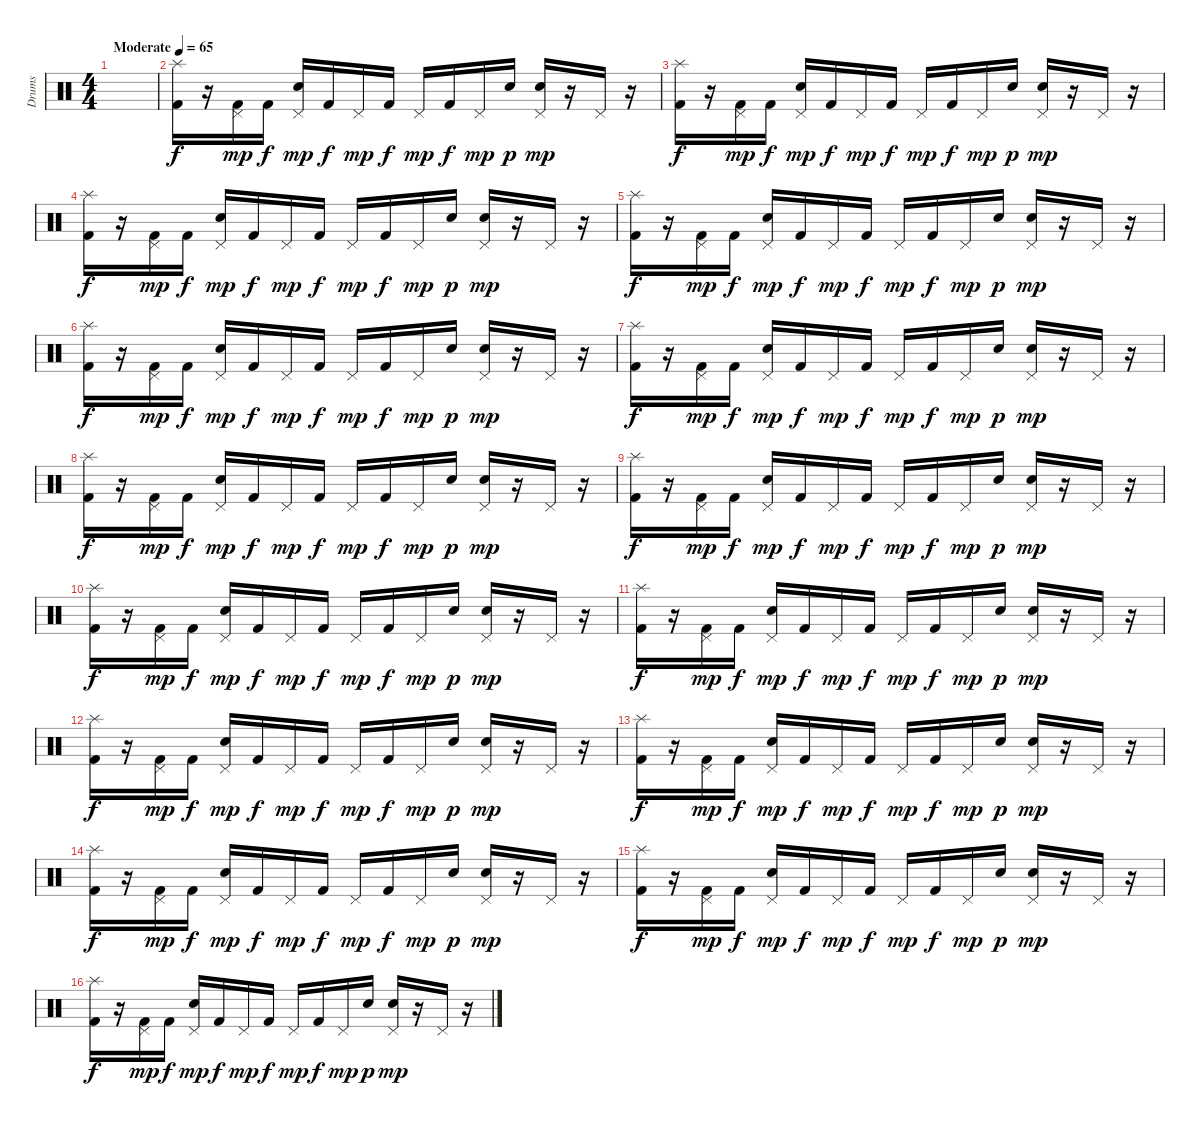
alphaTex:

\track ("Drums" "Drums") {instrument percussion}
\staff {score}
\articulation defaults
\ts (4 4)
\tempo (65 "Moderate")
\clef neutral
\ks c
|
("Splash (hit)" "Kick (hit) 2").16 r.16 ("Pedal Hi-Hat (hit)" "Kick (hit) 2").16{dy mp} "Kick (hit) 2".16{dy f} ("Pedal Hi-Hat (hit)" "Snare (hit) 2").16{dy mp} "Kick (hit) 2".16{dy f} "Pedal Hi-Hat (hit)".16{dy mp} "Kick (hit) 2".16{dy f} "Pedal Hi-Hat (hit)".16{dy mp} "Kick (hit) 2".16{dy f} "Pedal Hi-Hat (hit)".16{dy mp} "Snare (hit) 2".16{dy p} ("Pedal Hi-Hat (hit)" "Snare (hit) 2").16{dy mp} r.16 "Pedal Hi-Hat (hit)".16 r.16 |
("Splash (hit)" "Kick (hit) 2").16{dy f} r.16 ("Pedal Hi-Hat (hit)" "Kick (hit) 2").16{dy mp} "Kick (hit) 2".16{dy f} ("Pedal Hi-Hat (hit)" "Snare (hit) 2").16{dy mp} "Kick (hit) 2".16{dy f} "Pedal Hi-Hat (hit)".16{dy mp} "Kick (hit) 2".16{dy f} "Pedal Hi-Hat (hit)".16{dy mp} "Kick (hit) 2".16{dy f} "Pedal Hi-Hat (hit)".16{dy mp} "Snare (hit) 2".16{dy p} ("Pedal Hi-Hat (hit)" "Snare (hit) 2").16{dy mp} r.16 "Pedal Hi-Hat (hit)".16 r.16 |
("Splash (hit)" "Kick (hit) 2").16{dy f} r.16 ("Pedal Hi-Hat (hit)" "Kick (hit) 2").16{dy mp} "Kick (hit) 2".16{dy f} ("Pedal Hi-Hat (hit)" "Snare (hit) 2").16{dy mp} "Kick (hit) 2".16{dy f} "Pedal Hi-Hat (hit)".16{dy mp} "Kick (hit) 2".16{dy f} "Pedal Hi-Hat (hit)".16{dy mp} "Kick (hit) 2".16{dy f} "Pedal Hi-Hat (hit)".16{dy mp} "Snare (hit) 2".16{dy p} ("Pedal Hi-Hat (hit)" "Snare (hit) 2").16{dy mp} r.16 "Pedal Hi-Hat (hit)".16 r.16 |
("Splash (hit)" "Kick (hit) 2").16{dy f} r.16 ("Pedal Hi-Hat (hit)" "Kick (hit) 2").16{dy mp} "Kick (hit) 2".16{dy f} ("Pedal Hi-Hat (hit)" "Snare (hit) 2").16{dy mp} "Kick (hit) 2".16{dy f} "Pedal Hi-Hat (hit)".16{dy mp} "Kick (hit) 2".16{dy f} "Pedal Hi-Hat (hit)".16{dy mp} "Kick (hit) 2".16{dy f} "Pedal Hi-Hat (hit)".16{dy mp} "Snare (hit) 2".16{dy p} ("Pedal Hi-Hat (hit)" "Snare (hit) 2").16{dy mp} r.16 "Pedal Hi-Hat (hit)".16 r.16 |
("Splash (hit)" "Kick (hit) 2").16{dy f} r.16 ("Pedal Hi-Hat (hit)" "Kick (hit) 2").16{dy mp} "Kick (hit) 2".16{dy f} ("Pedal Hi-Hat (hit)" "Snare (hit) 2").16{dy mp} "Kick (hit) 2".16{dy f} "Pedal Hi-Hat (hit)".16{dy mp} "Kick (hit) 2".16{dy f} "Pedal Hi-Hat (hit)".16{dy mp} "Kick (hit) 2".16{dy f} "Pedal Hi-Hat (hit)".16{dy mp} "Snare (hit) 2".16{dy p} ("Pedal Hi-Hat (hit)" "Snare (hit) 2").16{dy mp} r.16 "Pedal Hi-Hat (hit)".16 r.16 |
("Splash (hit)" "Kick (hit) 2").16{dy f} r.16 ("Pedal Hi-Hat (hit)" "Kick (hit) 2").16{dy mp} "Kick (hit) 2".16{dy f} ("Pedal Hi-Hat (hit)" "Snare (hit) 2").16{dy mp} "Kick (hit) 2".16{dy f} "Pedal Hi-Hat (hit)".16{dy mp} "Kick (hit) 2".16{dy f} "Pedal Hi-Hat (hit)".16{dy mp} "Kick (hit) 2".16{dy f} "Pedal Hi-Hat (hit)".16{dy mp} "Snare (hit) 2".16{dy p} ("Pedal Hi-Hat (hit)" "Snare (hit) 2").16{dy mp} r.16 "Pedal Hi-Hat (hit)".16 r.16 |
("Splash (hit)" "Kick (hit) 2").16{dy f} r.16 ("Pedal Hi-Hat (hit)" "Kick (hit) 2").16{dy mp} "Kick (hit) 2".16{dy f} ("Pedal Hi-Hat (hit)" "Snare (hit) 2").16{dy mp} "Kick (hit) 2".16{dy f} "Pedal Hi-Hat (hit)".16{dy mp} "Kick (hit) 2".16{dy f} "Pedal Hi-Hat (hit)".16{dy mp} "Kick (hit) 2".16{dy f} "Pedal Hi-Hat (hit)".16{dy mp} "Snare (hit) 2".16{dy p} ("Pedal Hi-Hat (hit)" "Snare (hit) 2").16{dy mp} r.16 "Pedal Hi-Hat (hit)".16 r.16 |
("Splash (hit)" "Kick (hit) 2").16{dy f} r.16 ("Pedal Hi-Hat (hit)" "Kick (hit) 2").16{dy mp} "Kick (hit) 2".16{dy f} ("Pedal Hi-Hat (hit)" "Snare (hit) 2").16{dy mp} "Kick (hit) 2".16{dy f} "Pedal Hi-Hat (hit)".16{dy mp} "Kick (hit) 2".16{dy f} "Pedal Hi-Hat (hit)".16{dy mp} "Kick (hit) 2".16{dy f} "Pedal Hi-Hat (hit)".16{dy mp} "Snare (hit) 2".16{dy p} ("Pedal Hi-Hat (hit)" "Snare (hit) 2").16{dy mp} r.16 "Pedal Hi-Hat (hit)".16 r.16 |
("Splash (hit)" "Kick (hit) 2").16{dy f} r.16 ("Pedal Hi-Hat (hit)" "Kick (hit) 2").16{dy mp} "Kick (hit) 2".16{dy f} ("Pedal Hi-Hat (hit)" "Snare (hit) 2").16{dy mp} "Kick (hit) 2".16{dy f} "Pedal Hi-Hat (hit)".16{dy mp} "Kick (hit) 2".16{dy f} "Pedal Hi-Hat (hit)".16{dy mp} "Kick (hit) 2".16{dy f} "Pedal Hi-Hat (hit)".16{dy mp} "Snare (hit) 2".16{dy p} ("Pedal Hi-Hat (hit)" "Snare (hit) 2").16{dy mp} r.16 "Pedal Hi-Hat (hit)".16 r.16 |
("Splash (hit)" "Kick (hit) 2").16{dy f} r.16 ("Pedal Hi-Hat (hit)" "Kick (hit) 2").16{dy mp} "Kick (hit) 2".16{dy f} ("Pedal Hi-Hat (hit)" "Snare (hit) 2").16{dy mp} "Kick (hit) 2".16{dy f} "Pedal Hi-Hat (hit)".16{dy mp} "Kick (hit) 2".16{dy f} "Pedal Hi-Hat (hit)".16{dy mp} "Kick (hit) 2".16{dy f} "Pedal Hi-Hat (hit)".16{dy mp} "Snare (hit) 2".16{dy p} ("Pedal Hi-Hat (hit)" "Snare (hit) 2").16{dy mp} r.16 "Pedal Hi-Hat (hit)".16 r.16 |
("Splash (hit)" "Kick (hit) 2").16{dy f} r.16 ("Pedal Hi-Hat (hit)" "Kick (hit) 2").16{dy mp} "Kick (hit) 2".16{dy f} ("Pedal Hi-Hat (hit)" "Snare (hit) 2").16{dy mp} "Kick (hit) 2".16{dy f} "Pedal Hi-Hat (hit)".16{dy mp} "Kick (hit) 2".16{dy f} "Pedal Hi-Hat (hit)".16{dy mp} "Kick (hit) 2".16{dy f} "Pedal Hi-Hat (hit)".16{dy mp} "Snare (hit) 2".16{dy p} ("Pedal Hi-Hat (hit)" "Snare (hit) 2").16{dy mp} r.16 "Pedal Hi-Hat (hit)".16 r.16 |
("Splash (hit)" "Kick (hit) 2").16{dy f} r.16 ("Pedal Hi-Hat (hit)" "Kick (hit) 2").16{dy mp} "Kick (hit) 2".16{dy f} ("Pedal Hi-Hat (hit)" "Snare (hit) 2").16{dy mp} "Kick (hit) 2".16{dy f} "Pedal Hi-Hat (hit)".16{dy mp} "Kick (hit) 2".16{dy f} "Pedal Hi-Hat (hit)".16{dy mp} "Kick (hit) 2".16{dy f} "Pedal Hi-Hat (hit)".16{dy mp} "Snare (hit) 2".16{dy p} ("Pedal Hi-Hat (hit)" "Snare (hit) 2").16{dy mp} r.16 "Pedal Hi-Hat (hit)".16 r.16 |
("Splash (hit)" "Kick (hit) 2").16{dy f} r.16 ("Pedal Hi-Hat (hit)" "Kick (hit) 2").16{dy mp} "Kick (hit) 2".16{dy f} ("Pedal Hi-Hat (hit)" "Snare (hit) 2").16{dy mp} "Kick (hit) 2".16{dy f} "Pedal Hi-Hat (hit)".16{dy mp} "Kick (hit) 2".16{dy f} "Pedal Hi-Hat (hit)".16{dy mp} "Kick (hit) 2".16{dy f} "Pedal Hi-Hat (hit)".16{dy mp} "Snare (hit) 2".16{dy p} ("Pedal Hi-Hat (hit)" "Snare (hit) 2").16{dy mp} r.16 "Pedal Hi-Hat (hit)".16 r.16 |
("Splash (hit)" "Kick (hit) 2").16{dy f} r.16 ("Pedal Hi-Hat (hit)" "Kick (hit) 2").16{dy mp} "Kick (hit) 2".16{dy f} ("Pedal Hi-Hat (hit)" "Snare (hit) 2").16{dy mp} "Kick (hit) 2".16{dy f} "Pedal Hi-Hat (hit)".16{dy mp} "Kick (hit) 2".16{dy f} "Pedal Hi-Hat (hit)".16{dy mp} "Kick (hit) 2".16{dy f} "Pedal Hi-Hat (hit)".16{dy mp} "Snare (hit) 2".16{dy p} ("Pedal Hi-Hat (hit)" "Snare (hit) 2").16{dy mp} r.16 "Pedal Hi-Hat (hit)".16 r.16 |
("Splash (hit)" "Kick (hit) 2").16{dy f} r.16 ("Pedal Hi-Hat (hit)" "Kick (hit) 2").16{dy mp} "Kick (hit) 2".16{dy f} ("Pedal Hi-Hat (hit)" "Snare (hit) 2").16{dy mp} "Kick (hit) 2".16{dy f} "Pedal Hi-Hat (hit)".16{dy mp} "Kick (hit) 2".16{dy f} "Pedal Hi-Hat (hit)".16{dy mp} "Kick (hit) 2".16{dy f} "Pedal Hi-Hat (hit)".16{dy mp} "Snare (hit) 2".16{dy p} ("Pedal Hi-Hat (hit)" "Snare (hit) 2").16{dy mp} r.16 "Pedal Hi-Hat (hit)".16 r.16
